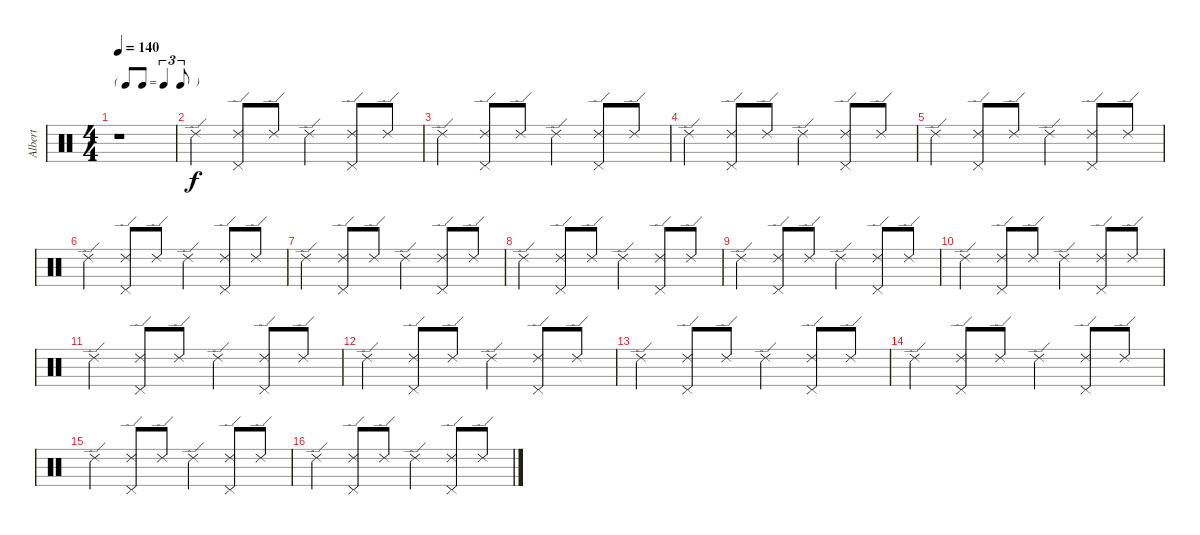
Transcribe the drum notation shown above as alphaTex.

\track ("Albert" "Albert") {instrument percussion}
\staff {score}
\articulation defaults
\ts (4 4)
\tf triplet8th
\tempo 140
\clef neutral
\ks c
r.1{dy f} |
"Ride (edge) 2".4 ("Ride (edge) 2" "Pedal Hi-Hat (hit)").8 "Ride (edge) 2".8 "Ride (edge) 2".4 ("Ride (edge) 2" "Pedal Hi-Hat (hit)").8 "Ride (edge) 2".8 |
"Ride (edge) 2".4 ("Ride (edge) 2" "Pedal Hi-Hat (hit)").8 "Ride (edge) 2".8 "Ride (edge) 2".4 ("Ride (edge) 2" "Pedal Hi-Hat (hit)").8 "Ride (edge) 2".8 |
"Ride (edge) 2".4 ("Ride (edge) 2" "Pedal Hi-Hat (hit)").8 "Ride (edge) 2".8 "Ride (edge) 2".4 ("Ride (edge) 2" "Pedal Hi-Hat (hit)").8 "Ride (edge) 2".8 |
"Ride (edge) 2".4 ("Ride (edge) 2" "Pedal Hi-Hat (hit)").8 "Ride (edge) 2".8 "Ride (edge) 2".4 ("Ride (edge) 2" "Pedal Hi-Hat (hit)").8 "Ride (edge) 2".8 |
"Ride (edge) 2".4 ("Ride (edge) 2" "Pedal Hi-Hat (hit)").8 "Ride (edge) 2".8 "Ride (edge) 2".4 ("Ride (edge) 2" "Pedal Hi-Hat (hit)").8 "Ride (edge) 2".8 |
"Ride (edge) 2".4 ("Ride (edge) 2" "Pedal Hi-Hat (hit)").8 "Ride (edge) 2".8 "Ride (edge) 2".4 ("Ride (edge) 2" "Pedal Hi-Hat (hit)").8 "Ride (edge) 2".8 |
"Ride (edge) 2".4 ("Ride (edge) 2" "Pedal Hi-Hat (hit)").8 "Ride (edge) 2".8 "Ride (edge) 2".4 ("Ride (edge) 2" "Pedal Hi-Hat (hit)").8 "Ride (edge) 2".8 |
"Ride (edge) 2".4 ("Ride (edge) 2" "Pedal Hi-Hat (hit)").8 "Ride (edge) 2".8 "Ride (edge) 2".4 ("Ride (edge) 2" "Pedal Hi-Hat (hit)").8 "Ride (edge) 2".8 |
"Ride (edge) 2".4 ("Ride (edge) 2" "Pedal Hi-Hat (hit)").8 "Ride (edge) 2".8 "Ride (edge) 2".4 ("Ride (edge) 2" "Pedal Hi-Hat (hit)").8 "Ride (edge) 2".8 |
"Ride (edge) 2".4 ("Ride (edge) 2" "Pedal Hi-Hat (hit)").8 "Ride (edge) 2".8 "Ride (edge) 2".4 ("Ride (edge) 2" "Pedal Hi-Hat (hit)").8 "Ride (edge) 2".8 |
"Ride (edge) 2".4 ("Ride (edge) 2" "Pedal Hi-Hat (hit)").8 "Ride (edge) 2".8 "Ride (edge) 2".4 ("Ride (edge) 2" "Pedal Hi-Hat (hit)").8 "Ride (edge) 2".8 |
"Ride (edge) 2".4 ("Ride (edge) 2" "Pedal Hi-Hat (hit)").8 "Ride (edge) 2".8 "Ride (edge) 2".4 ("Ride (edge) 2" "Pedal Hi-Hat (hit)").8 "Ride (edge) 2".8 |
"Ride (edge) 2".4 ("Ride (edge) 2" "Pedal Hi-Hat (hit)").8 "Ride (edge) 2".8 "Ride (edge) 2".4 ("Ride (edge) 2" "Pedal Hi-Hat (hit)").8 "Ride (edge) 2".8 |
"Ride (edge) 2".4 ("Ride (edge) 2" "Pedal Hi-Hat (hit)").8 "Ride (edge) 2".8 "Ride (edge) 2".4 ("Ride (edge) 2" "Pedal Hi-Hat (hit)").8 "Ride (edge) 2".8 |
"Ride (edge) 2".4 ("Ride (edge) 2" "Pedal Hi-Hat (hit)").8 "Ride (edge) 2".8 "Ride (edge) 2".4 ("Ride (edge) 2" "Pedal Hi-Hat (hit)").8 "Ride (edge) 2".8
